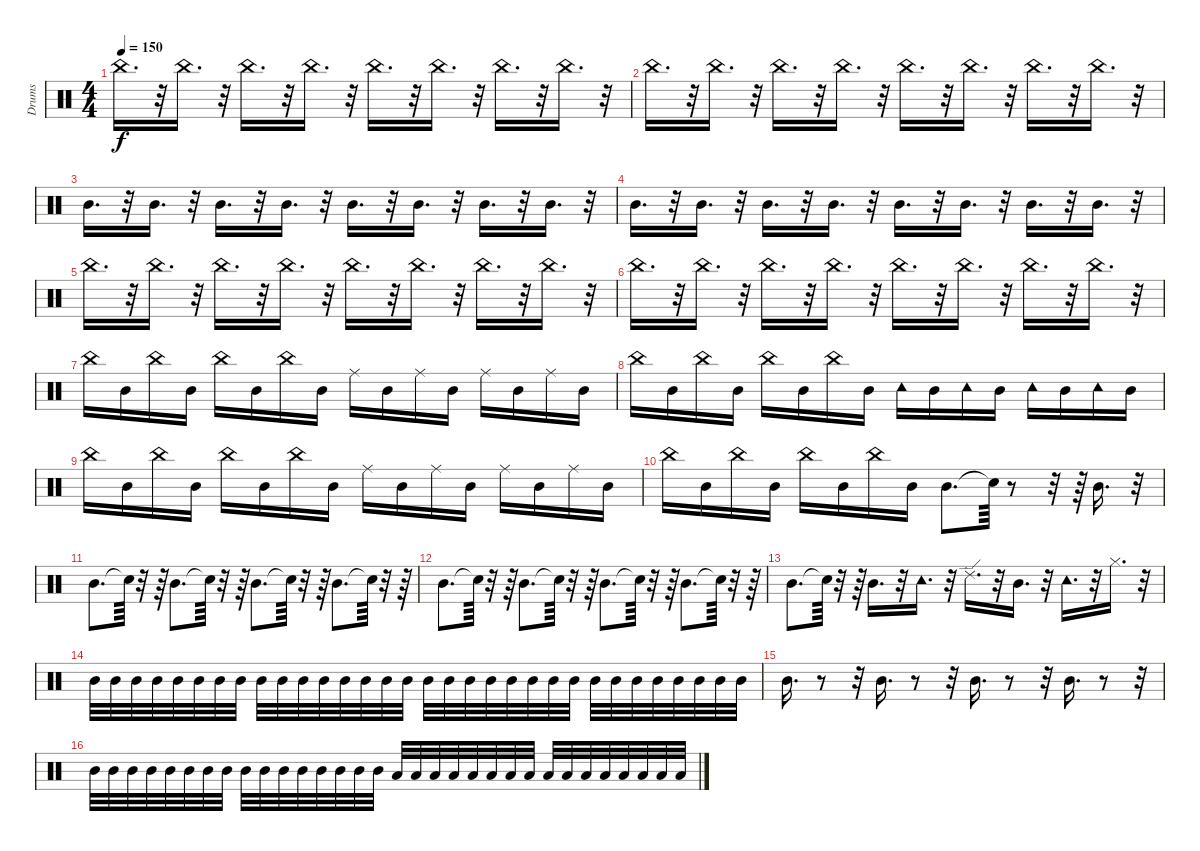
\track ("Drums" "Drums") {instrument percussion}
\staff {score}
\articulation defaults
\ts (4 4)
\tempo 150
\clef neutral
\ks c "China (hit)".16{d dy f}
r.32 "China (hit)".16{d} r.32 "China (hit)".16{d} r.32 "China (hit)".16{d} r.32 "China (hit)".16{d} r.32 "China (hit)".16{d} r.32 "China (hit)".16{d} r.32 "China (hit)".16{d} r.32 |
"China (hit)".16{d} r.32 "China (hit)".16{d} r.32 "China (hit)".16{d} r.32 "China (hit)".16{d} r.32 "China (hit)".16{d} r.32 "China (hit)".16{d} r.32 "China (hit)".16{d} r.32 "China (hit)".16{d} r.32 |
"Mid Tom (hit)".16{d} r.32 "Mid Tom (hit)".16{d} r.32 "Mid Tom (hit)".16{d} r.32 "Mid Tom (hit)".16{d} r.32 "Mid Tom (hit)".16{d} r.32 "Mid Tom (hit)".16{d} r.32 "Mid Tom (hit)".16{d} r.32 "Mid Tom (hit)".16{d} r.32 |
"Mid Tom (hit)".16{d} r.32 "Mid Tom (hit)".16{d} r.32 "Mid Tom (hit)".16{d} r.32 "Mid Tom (hit)".16{d} r.32 "Mid Tom (hit)".16{d} r.32 "Mid Tom (hit)".16{d} r.32 "Mid Tom (hit)".16{d} r.32 "Mid Tom (hit)".16{d} r.32 |
"China (hit)".16{d} r.32 "China (hit)".16{d} r.32 "China (hit)".16{d} r.32 "China (hit)".16{d} r.32 "China (hit)".16{d} r.32 "China (hit)".16{d} r.32 "China (hit)".16{d} r.32 "China (hit)".16{d} r.32 |
"China (hit)".16{d} r.32 "China (hit)".16{d} r.32 "China (hit)".16{d} r.32 "China (hit)".16{d} r.32 "China (hit)".16{d} r.32 "China (hit)".16{d} r.32 "China (hit)".16{d} r.32 "China (hit)".16{d} r.32 |
"China (hit)".16 "Mid Tom (hit)".16 "China (hit)".16 "Mid Tom (hit)".16 "China (hit)".16 "Mid Tom (hit)".16 "China (hit)".16 "Mid Tom (hit)".16 "Ride (middle)".16 "Mid Tom (hit)".16 "Ride (middle)".16 "Mid Tom (hit)".16 "Ride (middle)".16 "Mid Tom (hit)".16 "Ride (middle)".16 "Mid Tom (hit)".16 |
"China (hit)".16 "Mid Tom (hit)".16 "China (hit)".16 "Mid Tom (hit)".16 "China (hit)".16 "Mid Tom (hit)".16 "China (hit)".16 "Mid Tom (hit)".16 "Tambourine (hit)".16 "Mid Tom (hit)".16 "Tambourine (hit)".16 "Mid Tom (hit)".16 "Tambourine (hit)".16 "Mid Tom (hit)".16 "Tambourine (hit)".16 "Mid Tom (hit)".16 |
"China (hit)".16 "Mid Tom (hit)".16 "China (hit)".16 "Mid Tom (hit)".16 "China (hit)".16 "Mid Tom (hit)".16 "China (hit)".16 "Mid Tom (hit)".16 "Ride (middle)".16 "Mid Tom (hit)".16 "Ride (middle)".16 "Mid Tom (hit)".16 "Ride (middle)".16 "Mid Tom (hit)".16 "Ride (middle)".16 "Mid Tom (hit)".16 |
"China (hit)".16 "Mid Tom (hit)".16 "China (hit)".16 "Mid Tom (hit)".16 "China (hit)".16 "Mid Tom (hit)".16 "China (hit)".16 "Mid Tom (hit)".16 "Mid Tom (hit)".8{d} "Snare (hit)"{t}.64 r.8 r.32 r.64 "Mid Tom (hit)".16{d} r.32 |
"Mid Tom (hit)".8{d} "Snare (hit)"{t}.64 r.32 r.64 "Mid Tom (hit)".8{d} "Snare (hit)"{t}.64 r.32 r.64 "Mid Tom (hit)".8{d} "Snare (hit)"{t}.64 r.32 r.64 "Mid Tom (hit)".8{d} "Snare (hit)"{t}.64 r.32 r.64 |
"Mid Tom (hit)".8{d} "Snare (hit)"{t}.64 r.32 r.64 "Mid Tom (hit)".8{d} "Snare (hit)"{t}.64 r.32 r.64 "Mid Tom (hit)".8{d} "Snare (hit)"{t}.64 r.32 r.64 "Mid Tom (hit)".8{d} "Snare (hit)"{t}.64 r.32 r.64 |
"Mid Tom (hit)".8{d} "Snare (hit)"{t}.64 r.32 r.64 "Mid Tom (hit)".16{d} r.32 "Tambourine (hit)".16{d} r.32 "Ride (edge) 2".16{d} r.32 "Mid Tom (hit)".16{d} r.32 "Tambourine (hit)".16{d} r.32 "Hi-Hat (closed)".16{d} r.32 |
"Mid Tom (hit)".32 "Mid Tom (hit)".32 "Mid Tom (hit)".32 "Mid Tom (hit)".32 "Mid Tom (hit)".32 "Mid Tom (hit)".32 "Mid Tom (hit)".32 "Mid Tom (hit)".32 "Mid Tom (hit)".32 "Mid Tom (hit)".32 "Mid Tom (hit)".32 "Mid Tom (hit)".32 "Mid Tom (hit)".32 "Mid Tom (hit)".32 "Mid Tom (hit)".32 "Mid Tom (hit)".32 "Mid Tom (hit)".32 "Mid Tom (hit)".32 "Mid Tom (hit)".32 "Mid Tom (hit)".32 "Mid Tom (hit)".32 "Mid Tom (hit)".32 "Mid Tom (hit)".32 "Mid Tom (hit)".32 "Mid Tom (hit)".32 "Mid Tom (hit)".32 "Mid Tom (hit)".32 "Mid Tom (hit)".32 "Mid Tom (hit)".32 "Mid Tom (hit)".32 "Mid Tom (hit)".32 "Mid Tom (hit)".32 |
"Mid Tom (hit)".16{d} r.8 r.32 "Mid Tom (hit)".16{d} r.8 r.32 "Mid Tom (hit)".16{d} r.8 r.32 "Mid Tom (hit)".16{d} r.8 r.32 |
"Mid Tom (hit)".32 "Mid Tom (hit)".32 "Mid Tom (hit)".32 "Mid Tom (hit)".32 "Mid Tom (hit)".32 "Mid Tom (hit)".32 "Mid Tom (hit)".32 "Mid Tom (hit)".32 "Mid Tom (hit)".32 "Mid Tom (hit)".32 "Mid Tom (hit)".32 "Mid Tom (hit)".32 "Mid Tom (hit)".32 "Mid Tom (hit)".32 "Mid Tom (hit)".32 "Mid Tom (hit)".32 "Low Tom (hit)".32 "Low Tom (hit)".32 "Low Tom (hit)".32 "Low Tom (hit)".32 "Low Tom (hit)".32 "Low Tom (hit)".32 "Low Tom (hit)".32 "Low Tom (hit)".32 "Low Tom (hit)".32 "Low Tom (hit)".32 "Low Tom (hit)".32 "Low Tom (hit)".32 "Low Tom (hit)".32 "Low Tom (hit)".32 "Low Tom (hit)".32 "Low Tom (hit)".32
